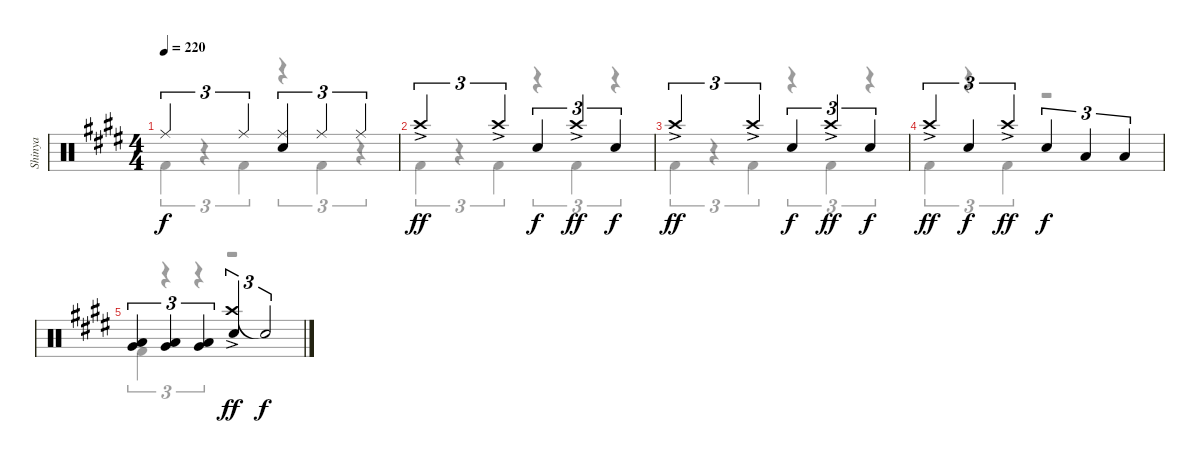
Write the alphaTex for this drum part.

\track ("Shinya" "Shinya") {instrument percussion}
\staff {score}
\articulation defaults
\voice
\ts (4 4)
\tempo 220
\clef neutral
\ks c#minor "Ride (middle)".2{tu (3 2) dy f} "Ride (middle)".4{tu (3 2)}
("Ride (middle)" "Snare (hit) 2").4{tu (3 2)} "Ride (middle)".4{tu (3 2)} "Ride (middle)".4{tu (3 2)} |
"Crash high (hit)"{ac}.2{tu (3 2) dy ff} "Crash high (hit)"{ac}.4{tu (3 2)} "Snare (hit) 2".4{tu (3 2) dy f} "Crash high (hit)"{ac}.4{tu (3 2) dy ff} "Snare (hit) 2".4{tu (3 2) dy f} |
"Crash high (hit)"{ac}.2{tu (3 2) dy ff} "Crash high (hit)"{ac}.4{tu (3 2)} "Snare (hit) 2".4{tu (3 2) dy f} "Crash high (hit)"{ac}.4{tu (3 2) dy ff} "Snare (hit) 2".4{tu (3 2) dy f} |
"Crash high (hit)"{ac}.4{tu (3 2) dy ff} "Snare (hit) 2".4{tu (3 2) dy f} "Crash high (hit)"{ac}.4{tu (3 2) dy ff} "Snare (hit) 2".4{tu (3 2) dy f} "Low Tom (hit)".4{tu (3 2)} "Low Tom (hit)".4{tu (3 2)} |
("Low Tom (hit)" "Very Low Tom (hit)").4{tu (3 2)} ("Low Tom (hit)" "Very Low Tom (hit)").4{tu (3 2)} ("Low Tom (hit)" "Very Low Tom (hit)").4{tu (3 2)} ("Crash high (hit)"{ac} "Snare (hit) 2").4{tu (3 2) dy ff} "Snare (hit)"{t}.2{tu (3 2) dy f}
\voice
\clef neutral
\ottava regular
\simile none
\ks c#minor "Kick (hit) 2".4{tu (3 2) dy f}
r.4{tu (3 2)} "Kick (hit) 2".4{tu (3 2)} r.4{tu (3 2)} "Kick (hit) 2".4{tu (3 2)} r.4{tu (3 2)} |
"Kick (hit) 2".4{tu (3 2)} r.4{tu (3 2)} "Kick (hit) 2".4{tu (3 2)} r.4{tu (3 2)} "Kick (hit) 2".4{tu (3 2)} r.4{tu (3 2)} |
"Kick (hit) 2".4{tu (3 2)} r.4{tu (3 2)} "Kick (hit) 2".4{tu (3 2)} r.4{tu (3 2)} "Kick (hit) 2".4{tu (3 2)} r.4{tu (3 2)} |
"Kick (hit) 2".4{tu (3 2)} r.4{tu (3 2)} "Kick (hit) 2".4{tu (3 2)} r.2 |
"Kick (hit) 2".4{tu (3 2)} r.4{tu (3 2)} r.4{tu (3 2)} r.2
